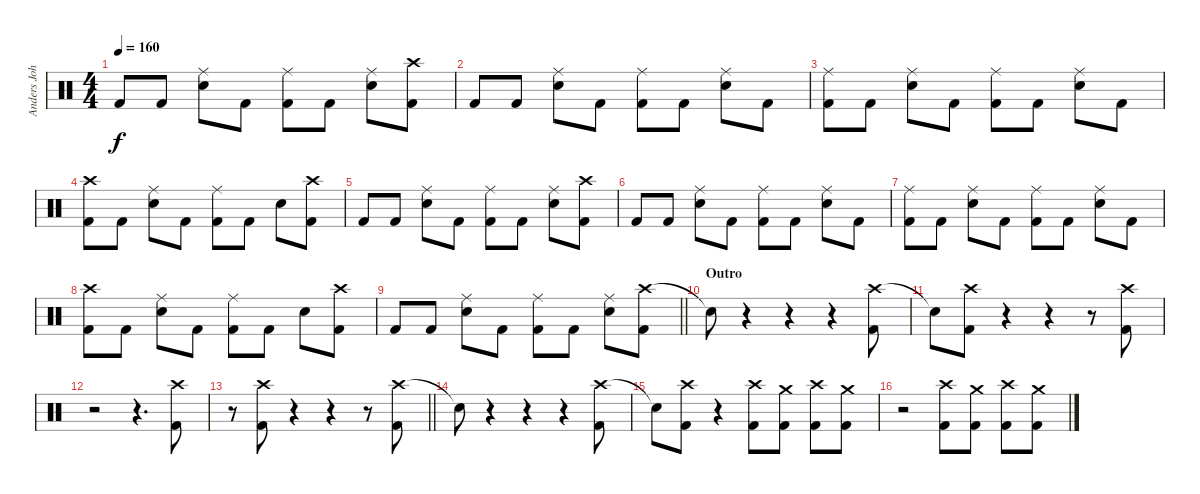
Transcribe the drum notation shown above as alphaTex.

\track ("Anders Johansson" "Anders Joh") {instrument percussion}
\staff {score}
\articulation defaults
\ts (4 4)
\tempo 160
\clef neutral
\ks c "Kick (hit) 2".8{dy f} "Kick (hit) 2".8
("Ride (middle)" "Snare (hit) 2").8 "Kick (hit) 2".8 ("Ride (middle)" "Kick (hit) 2").8 "Kick (hit) 2".8 ("Ride (middle)" "Snare (hit) 2").8 ("Crash high (hit)" "Kick (hit) 2").8 |
"Kick (hit) 2".8 "Kick (hit) 2".8 ("Ride (middle)" "Snare (hit) 2").8 "Kick (hit) 2".8 ("Ride (middle)" "Kick (hit) 2").8 "Kick (hit) 2".8 ("Ride (middle)" "Snare (hit) 2").8 "Kick (hit) 2".8 |
("Ride (middle)" "Kick (hit) 2").8 "Kick (hit) 2".8 ("Ride (middle)" "Snare (hit) 2").8 "Kick (hit) 2".8 ("Ride (middle)" "Kick (hit) 2").8 "Kick (hit) 2".8 ("Ride (middle)" "Snare (hit) 2").8 "Kick (hit) 2".8 |
("Crash high (hit)" "Kick (hit) 2").8 "Kick (hit) 2".8 ("Ride (middle)" "Snare (hit) 2").8 "Kick (hit) 2".8 ("Ride (middle)" "Kick (hit) 2").8 "Kick (hit) 2".8 "Snare (hit) 2".8 ("Crash high (hit)" "Kick (hit) 2").8 |
"Kick (hit) 2".8 "Kick (hit) 2".8 ("Ride (middle)" "Snare (hit) 2").8 "Kick (hit) 2".8 ("Ride (middle)" "Kick (hit) 2").8 "Kick (hit) 2".8 ("Ride (middle)" "Snare (hit) 2").8 ("Crash high (hit)" "Kick (hit) 2").8 |
"Kick (hit) 2".8 "Kick (hit) 2".8 ("Ride (middle)" "Snare (hit) 2").8 "Kick (hit) 2".8 ("Ride (middle)" "Kick (hit) 2").8 "Kick (hit) 2".8 ("Ride (middle)" "Snare (hit) 2").8 "Kick (hit) 2".8 |
("Ride (middle)" "Kick (hit) 2").8 "Kick (hit) 2".8 ("Ride (middle)" "Snare (hit) 2").8 "Kick (hit) 2".8 ("Ride (middle)" "Kick (hit) 2").8 "Kick (hit) 2".8 ("Ride (middle)" "Snare (hit) 2").8 "Kick (hit) 2".8 |
("Crash high (hit)" "Kick (hit) 2").8 "Kick (hit) 2".8 ("Ride (middle)" "Snare (hit) 2").8 "Kick (hit) 2".8 ("Ride (middle)" "Kick (hit) 2").8 "Kick (hit) 2".8 "Snare (hit) 2".8 ("Crash high (hit)" "Kick (hit) 2").8 |
\barLineRight lightlight "Kick (hit) 2".8 "Kick (hit) 2".8
("Ride (middle)" "Snare (hit) 2").8 "Kick (hit) 2".8 ("Ride (middle)" "Kick (hit) 2").8 "Kick (hit) 2".8 ("Ride (middle)" "Snare (hit) 2").8 ("Crash high (hit)" "Kick (hit) 2").8 |
\section ("" "Outro")
"Snare (hit)"{t}.8 r.4 r.4 r.4 ("Crash high (hit)" "Kick (hit) 2").8 |
"Snare (hit)"{t}.8 ("Crash high (hit)" "Kick (hit) 2").8 r.4 r.4 r.8 ("Crash high (hit)" "Kick (hit) 2").8 |
r.2 r.4{d} ("Crash high (hit)" "Kick (hit) 2").8 |
\barLineRight lightlight
r.8 ("Crash high (hit)" "Kick (hit) 2").8 r.4 r.4 r.8 ("Crash high (hit)" "Kick (hit) 2").8 |
"Snare (hit)"{t}.8 r.4 r.4 r.4 ("Crash high (hit)" "Kick (hit) 2").8 |
"Snare (hit)"{t}.8 ("Crash high (hit)" "Kick (hit) 2").8 r.4 ("Crash high (hit)" "Kick (hit) 2").8 ("Crash medium (hit)" "Kick (hit) 2").8 ("Crash high (hit)" "Kick (hit) 2").8 ("Crash medium (hit)" "Kick (hit) 2").8 |
r.2 ("Crash high (hit)" "Kick (hit) 2").8 ("Crash medium (hit)" "Kick (hit) 2").8 ("Crash high (hit)" "Kick (hit) 2").8 ("Crash medium (hit)" "Kick (hit) 2").8
